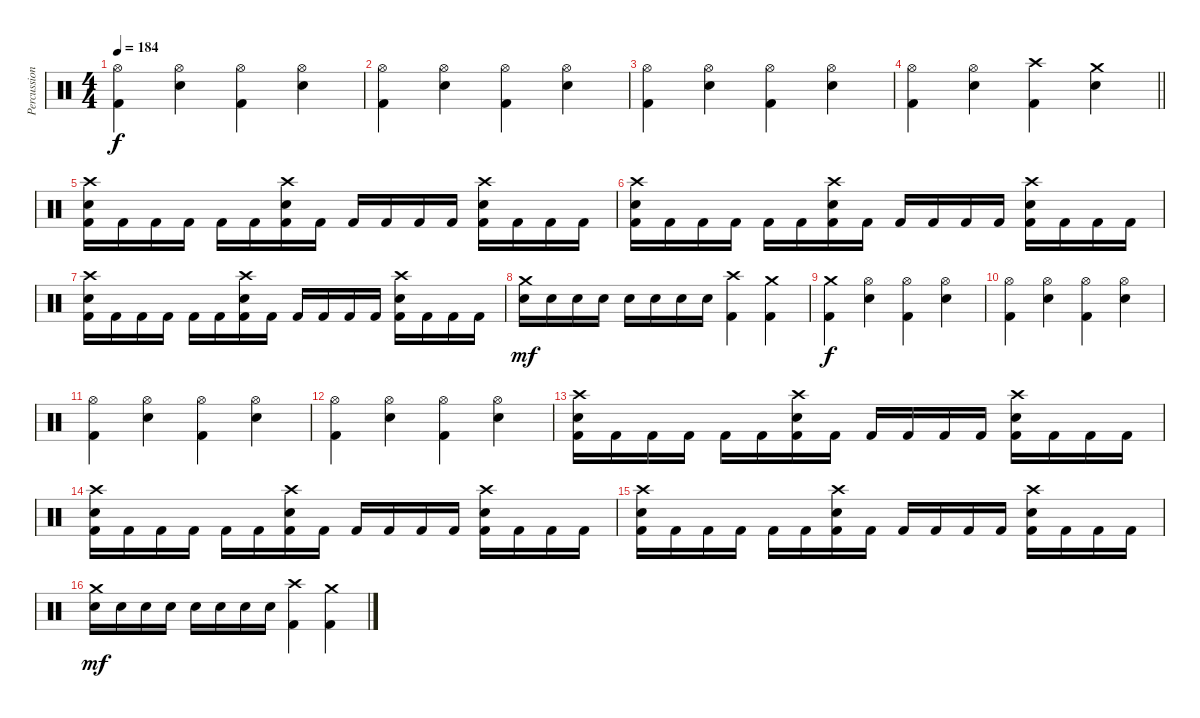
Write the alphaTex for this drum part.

\track ("Percussion" "Percussion") {instrument percussion}
\staff {score}
\articulation defaults
\ts (4 4)
\tempo 184
\clef neutral
\ks c
("Hi-Hat (open)" "Kick (hit) 2").4{dy f} ("Hi-Hat (open)" "Electric Snare (hit)").4 ("Hi-Hat (open)" "Kick (hit) 2").4 ("Hi-Hat (open)" "Electric Snare (hit)").4 |
("Hi-Hat (open)" "Kick (hit) 2").4 ("Hi-Hat (open)" "Electric Snare (hit)").4 ("Hi-Hat (open)" "Kick (hit) 2").4 ("Hi-Hat (open)" "Electric Snare (hit)").4 |
("Hi-Hat (open)" "Kick (hit) 2").4 ("Hi-Hat (open)" "Electric Snare (hit)").4 ("Hi-Hat (open)" "Kick (hit) 2").4 ("Hi-Hat (open)" "Electric Snare (hit)").4 |
\barLineRight lightlight
("Hi-Hat (open)" "Kick (hit) 2").4 ("Hi-Hat (open)" "Electric Snare (hit)").4 ("Crash high (hit)" "Kick (hit) 2").4 ("Crash medium (hit)" "Electric Snare (hit)").4 |
("Crash high (hit)" "Electric Snare (hit)" "Kick (hit) 2").16 "Kick (hit) 2".16 "Kick (hit) 2".16 "Kick (hit) 2".16 "Kick (hit) 2".16 "Kick (hit) 2".16 ("Crash high (hit)" "Electric Snare (hit)" "Kick (hit) 2").16 "Kick (hit) 2".16 "Kick (hit) 2".16 "Kick (hit) 2".16 "Kick (hit) 2".16 "Kick (hit) 2".16 ("Crash high (hit)" "Electric Snare (hit)" "Kick (hit) 2").16 "Kick (hit) 2".16 "Kick (hit) 2".16 "Kick (hit) 2".16 |
("Crash high (hit)" "Electric Snare (hit)" "Kick (hit) 2").16 "Kick (hit) 2".16 "Kick (hit) 2".16 "Kick (hit) 2".16 "Kick (hit) 2".16 "Kick (hit) 2".16 ("Crash high (hit)" "Electric Snare (hit)" "Kick (hit) 2").16 "Kick (hit) 2".16 "Kick (hit) 2".16 "Kick (hit) 2".16 "Kick (hit) 2".16 "Kick (hit) 2".16 ("Crash high (hit)" "Electric Snare (hit)" "Kick (hit) 2").16 "Kick (hit) 2".16 "Kick (hit) 2".16 "Kick (hit) 2".16 |
("Crash high (hit)" "Electric Snare (hit)" "Kick (hit) 2").16 "Kick (hit) 2".16 "Kick (hit) 2".16 "Kick (hit) 2".16 "Kick (hit) 2".16 "Kick (hit) 2".16 ("Crash high (hit)" "Electric Snare (hit)" "Kick (hit) 2").16 "Kick (hit) 2".16 "Kick (hit) 2".16 "Kick (hit) 2".16 "Kick (hit) 2".16 "Kick (hit) 2".16 ("Crash high (hit)" "Electric Snare (hit)" "Kick (hit) 2").16 "Kick (hit) 2".16 "Kick (hit) 2".16 "Kick (hit) 2".16 |
("Crash medium (hit)" "Electric Snare (hit)").16{dy mf} "Electric Snare (hit)".16 "Electric Snare (hit)".16 "Electric Snare (hit)".16 "Electric Snare (hit)".16 "Electric Snare (hit)".16 "Electric Snare (hit)".16 "Electric Snare (hit)".16 ("Crash high (hit)" "Kick (hit) 2").4 ("Crash medium (hit)" "Kick (hit) 2").4 |
("Crash medium (hit)" "Kick (hit) 2").4{dy f} ("Hi-Hat (open)" "Electric Snare (hit)").4 ("Hi-Hat (open)" "Kick (hit) 2").4 ("Hi-Hat (open)" "Electric Snare (hit)").4 |
("Hi-Hat (open)" "Kick (hit) 2").4 ("Hi-Hat (open)" "Electric Snare (hit)").4 ("Hi-Hat (open)" "Kick (hit) 2").4 ("Hi-Hat (open)" "Electric Snare (hit)").4 |
("Hi-Hat (open)" "Kick (hit) 2").4 ("Hi-Hat (open)" "Electric Snare (hit)").4 ("Hi-Hat (open)" "Kick (hit) 2").4 ("Hi-Hat (open)" "Electric Snare (hit)").4 |
("Hi-Hat (open)" "Kick (hit) 2").4 ("Hi-Hat (open)" "Electric Snare (hit)").4 ("Hi-Hat (open)" "Kick (hit) 2").4 ("Hi-Hat (open)" "Electric Snare (hit)").4 |
("Crash high (hit)" "Electric Snare (hit)" "Kick (hit) 2").16 "Kick (hit) 2".16 "Kick (hit) 2".16 "Kick (hit) 2".16 "Kick (hit) 2".16 "Kick (hit) 2".16 ("Crash high (hit)" "Electric Snare (hit)" "Kick (hit) 2").16 "Kick (hit) 2".16 "Kick (hit) 2".16 "Kick (hit) 2".16 "Kick (hit) 2".16 "Kick (hit) 2".16 ("Crash high (hit)" "Electric Snare (hit)" "Kick (hit) 2").16 "Kick (hit) 2".16 "Kick (hit) 2".16 "Kick (hit) 2".16 |
("Crash high (hit)" "Electric Snare (hit)" "Kick (hit) 2").16 "Kick (hit) 2".16 "Kick (hit) 2".16 "Kick (hit) 2".16 "Kick (hit) 2".16 "Kick (hit) 2".16 ("Crash high (hit)" "Electric Snare (hit)" "Kick (hit) 2").16 "Kick (hit) 2".16 "Kick (hit) 2".16 "Kick (hit) 2".16 "Kick (hit) 2".16 "Kick (hit) 2".16 ("Crash high (hit)" "Electric Snare (hit)" "Kick (hit) 2").16 "Kick (hit) 2".16 "Kick (hit) 2".16 "Kick (hit) 2".16 |
("Crash high (hit)" "Electric Snare (hit)" "Kick (hit) 2").16 "Kick (hit) 2".16 "Kick (hit) 2".16 "Kick (hit) 2".16 "Kick (hit) 2".16 "Kick (hit) 2".16 ("Crash high (hit)" "Electric Snare (hit)" "Kick (hit) 2").16 "Kick (hit) 2".16 "Kick (hit) 2".16 "Kick (hit) 2".16 "Kick (hit) 2".16 "Kick (hit) 2".16 ("Crash high (hit)" "Electric Snare (hit)" "Kick (hit) 2").16 "Kick (hit) 2".16 "Kick (hit) 2".16 "Kick (hit) 2".16 |
("Crash medium (hit)" "Electric Snare (hit)").16{dy mf} "Electric Snare (hit)".16 "Electric Snare (hit)".16 "Electric Snare (hit)".16 "Electric Snare (hit)".16 "Electric Snare (hit)".16 "Electric Snare (hit)".16 "Electric Snare (hit)".16 ("Crash high (hit)" "Kick (hit) 2").4 ("Crash medium (hit)" "Kick (hit) 2").4
